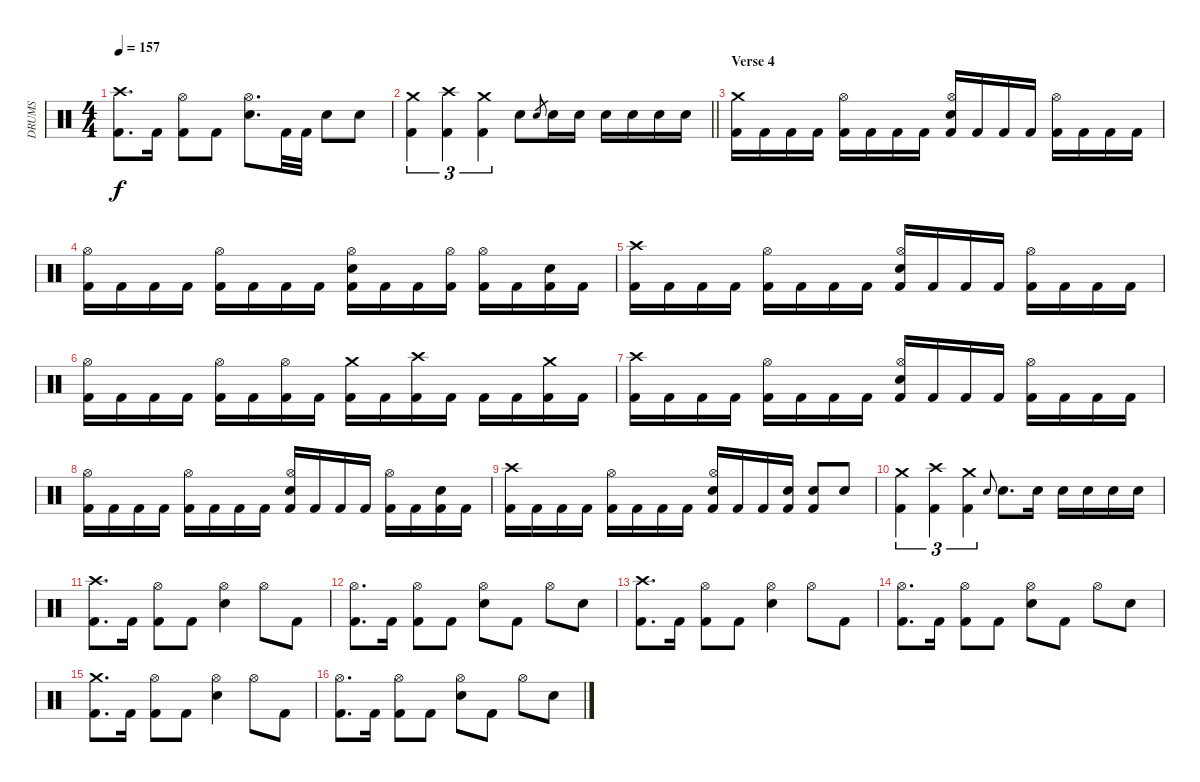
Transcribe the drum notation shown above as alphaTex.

\track ("DRUMS" "DRUMS") {instrument percussion}
\staff {score}
\articulation defaults
\ts (4 4)
\tempo 157
\clef neutral
\ks c
("Crash high (hit)" "Kick (hit) 2").8{d dy f} "Kick (hit) 2".16 ("Hi-Hat (open)" "Kick (hit) 2").8 "Kick (hit) 2".8 ("Hi-Hat (open)" "Snare (hit) 2").8{d} "Kick (hit) 2".32 "Kick (hit) 2".32 "Snare (hit) 2".8 "Snare (hit) 2".8 |
\barLineRight lightlight
("Crash medium (hit)" "Kick (hit) 2").4{tu (3 2)} ("Crash high (hit)" "Kick (hit) 2").4{tu (3 2)} ("Crash medium (hit)" "Kick (hit) 2").4{tu (3 2)} "Snare (hit) 2".8 "Snare (hit) 2".8{gr} "Snare (hit) 2".16 "Snare (hit) 2".16 "Snare (hit) 2".16 "Snare (hit) 2".16 "Snare (hit) 2".16 "Snare (hit) 2".16 |
\section ("" "Verse 4")
("Crash medium (hit)" "Kick (hit) 2").16 "Kick (hit) 2".16 "Kick (hit) 2".16 "Kick (hit) 2".16 ("Hi-Hat (open)" "Kick (hit) 2").16 "Kick (hit) 2".16 "Kick (hit) 2".16 "Kick (hit) 2".16 ("Hi-Hat (open)" "Snare (hit) 2" "Kick (hit) 2").16 "Kick (hit) 2".16 "Kick (hit) 2".16 "Kick (hit) 2".16 ("Hi-Hat (open)" "Kick (hit) 2").16 "Kick (hit) 2".16 "Kick (hit) 2".16 "Kick (hit) 2".16 |
("Hi-Hat (open)" "Kick (hit) 2").16 "Kick (hit) 2".16 "Kick (hit) 2".16 "Kick (hit) 2".16 ("Hi-Hat (open)" "Kick (hit) 2").16 "Kick (hit) 2".16 "Kick (hit) 2".16 "Kick (hit) 2".16 ("Hi-Hat (open)" "Snare (hit) 2" "Kick (hit) 2").16 "Kick (hit) 2".16 "Kick (hit) 2".16 ("Hi-Hat (open)" "Kick (hit) 2").16 ("Hi-Hat (open)" "Kick (hit) 2").16 "Kick (hit) 2".16 ("Snare (hit) 2" "Kick (hit) 2").16 "Kick (hit) 2".16 |
("Crash high (hit)" "Kick (hit) 2").16 "Kick (hit) 2".16 "Kick (hit) 2".16 "Kick (hit) 2".16 ("Hi-Hat (open)" "Kick (hit) 2").16 "Kick (hit) 2".16 "Kick (hit) 2".16 "Kick (hit) 2".16 ("Hi-Hat (open)" "Snare (hit) 2" "Kick (hit) 2").16 "Kick (hit) 2".16 "Kick (hit) 2".16 "Kick (hit) 2".16 ("Hi-Hat (open)" "Kick (hit) 2").16 "Kick (hit) 2".16 "Kick (hit) 2".16 "Kick (hit) 2".16 |
("Hi-Hat (open)" "Kick (hit) 2").16 "Kick (hit) 2".16 "Kick (hit) 2".16 "Kick (hit) 2".16 ("Hi-Hat (open)" "Kick (hit) 2").16 "Kick (hit) 2".16 ("Hi-Hat (open)" "Kick (hit) 2").16 "Kick (hit) 2".16 ("Crash medium (hit)" "Kick (hit) 2").16 "Kick (hit) 2".16 ("Crash high (hit)" "Kick (hit) 2").16 "Kick (hit) 2".16 "Kick (hit) 2".16 "Kick (hit) 2".16 ("Crash medium (hit)" "Kick (hit) 2").16 "Kick (hit) 2".16 |
("Crash high (hit)" "Kick (hit) 2").16 "Kick (hit) 2".16 "Kick (hit) 2".16 "Kick (hit) 2".16 ("Hi-Hat (open)" "Kick (hit) 2").16 "Kick (hit) 2".16 "Kick (hit) 2".16 "Kick (hit) 2".16 ("Hi-Hat (open)" "Snare (hit) 2" "Kick (hit) 2").16 "Kick (hit) 2".16 "Kick (hit) 2".16 "Kick (hit) 2".16 ("Hi-Hat (open)" "Kick (hit) 2").16 "Kick (hit) 2".16 "Kick (hit) 2".16 "Kick (hit) 2".16 |
("Hi-Hat (open)" "Kick (hit) 2").16 "Kick (hit) 2".16 "Kick (hit) 2".16 "Kick (hit) 2".16 ("Hi-Hat (open)" "Kick (hit) 2").16 "Kick (hit) 2".16 "Kick (hit) 2".16 "Kick (hit) 2".16 ("Hi-Hat (open)" "Snare (hit) 2" "Kick (hit) 2").16 "Kick (hit) 2".16 "Kick (hit) 2".16 "Kick (hit) 2".16 ("Hi-Hat (open)" "Kick (hit) 2").16 "Kick (hit) 2".16 ("Snare (hit) 2" "Kick (hit) 2").16 "Kick (hit) 2".16 |
("Crash high (hit)" "Kick (hit) 2").16 "Kick (hit) 2".16 "Kick (hit) 2".16 "Kick (hit) 2".16 ("Hi-Hat (open)" "Kick (hit) 2").16 "Kick (hit) 2".16 "Kick (hit) 2".16 "Kick (hit) 2".16 ("Hi-Hat (open)" "Snare (hit) 2" "Kick (hit) 2").16 "Kick (hit) 2".16 "Kick (hit) 2".16 ("Snare (hit) 2" "Kick (hit) 2").16 ("Snare (hit) 2" "Kick (hit) 2").8 "Snare (hit) 2".8 |
("Crash medium (hit)" "Kick (hit) 2").4{tu (3 2)} ("Crash high (hit)" "Kick (hit) 2").4{tu (3 2)} ("Crash medium (hit)" "Kick (hit) 2").4{tu (3 2)} "Snare (hit) 2".8{gr onbeat} "Snare (hit) 2".8{d} "Snare (hit) 2".16 "Snare (hit) 2".16 "Snare (hit) 2".16 "Snare (hit) 2".16 "Snare (hit) 2".16 |
("Crash high (hit)" "Kick (hit) 2").8{d} "Kick (hit) 2".16 ("Hi-Hat (open)" "Kick (hit) 2").8 "Kick (hit) 2".8 ("Hi-Hat (open)" "Snare (hit) 2").4 "Hi-Hat (open)".8 "Kick (hit) 2".8 |
("Hi-Hat (open)" "Kick (hit) 2").8{d} "Kick (hit) 2".16 ("Hi-Hat (open)" "Kick (hit) 2").8 "Kick (hit) 2".8 ("Hi-Hat (open)" "Snare (hit) 2").8 "Kick (hit) 2".8 "Hi-Hat (open)".8 "Snare (hit) 2".8 |
("Crash high (hit)" "Kick (hit) 2").8{d} "Kick (hit) 2".16 ("Hi-Hat (open)" "Kick (hit) 2").8 "Kick (hit) 2".8 ("Hi-Hat (open)" "Snare (hit) 2").4 "Hi-Hat (open)".8 "Kick (hit) 2".8 |
("Hi-Hat (open)" "Kick (hit) 2").8{d} "Kick (hit) 2".16 ("Hi-Hat (open)" "Kick (hit) 2").8 "Kick (hit) 2".8 ("Hi-Hat (open)" "Snare (hit) 2").8 "Kick (hit) 2".8 "Hi-Hat (open)".8 "Snare (hit) 2".8 |
("Crash medium (hit)" "Kick (hit) 2").8{d} "Kick (hit) 2".16 ("Hi-Hat (open)" "Kick (hit) 2").8 "Kick (hit) 2".8 ("Hi-Hat (open)" "Snare (hit) 2").4 "Hi-Hat (open)".8 "Kick (hit) 2".8 |
("Hi-Hat (open)" "Kick (hit) 2").8{d} "Kick (hit) 2".16 ("Hi-Hat (open)" "Kick (hit) 2").8 "Kick (hit) 2".8 ("Hi-Hat (open)" "Snare (hit) 2").8 "Kick (hit) 2".8 "Hi-Hat (open)".8 "Snare (hit) 2".8
